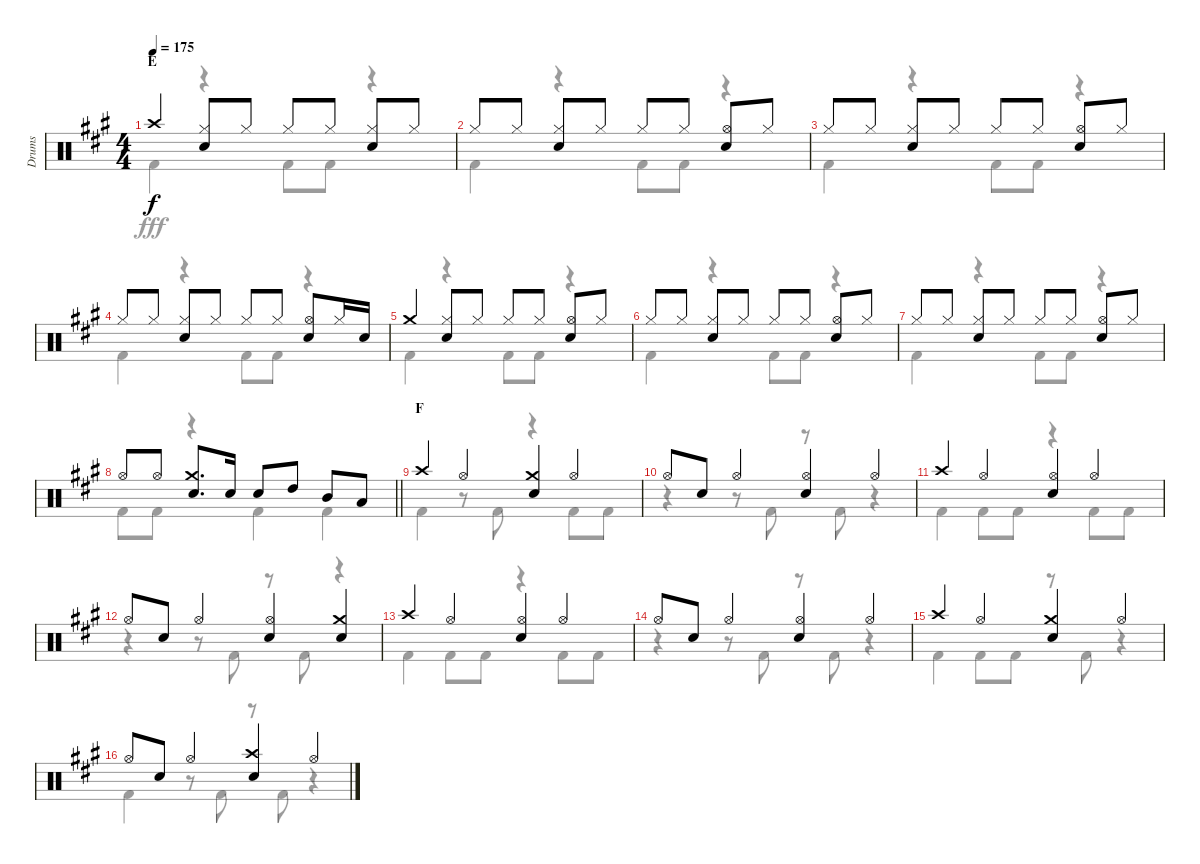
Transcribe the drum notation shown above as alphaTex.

\track ("Drums" "Drums") {instrument percussion}
\staff {score}
\articulation defaults
\voice
\ts (4 4)
\section ("" "E")
\tempo 175
\clef neutral
\ks a "Crash high (hit)".4{dy f}
("Hi-Hat (closed)" "Snare (hit) 2").8 "Hi-Hat (closed)".8 "Hi-Hat (closed)".8 "Hi-Hat (closed)".8 ("Hi-Hat (closed)" "Snare (hit) 2").8 "Hi-Hat (closed)".8 |
"Hi-Hat (closed)".8 "Hi-Hat (closed)".8 ("Hi-Hat (closed)" "Snare (hit) 2").8 "Hi-Hat (closed)".8 "Hi-Hat (closed)".8 "Hi-Hat (closed)".8 ("Hi-Hat (open)" "Snare (hit) 2").8 "Hi-Hat (closed)".8 |
"Hi-Hat (closed)".8 "Hi-Hat (closed)".8 ("Hi-Hat (closed)" "Snare (hit) 2").8 "Hi-Hat (closed)".8 "Hi-Hat (closed)".8 "Hi-Hat (closed)".8 ("Hi-Hat (open)" "Snare (hit) 2").8 "Hi-Hat (closed)".8 |
"Hi-Hat (closed)".8 "Hi-Hat (closed)".8 ("Hi-Hat (closed)" "Snare (hit) 2").8 "Hi-Hat (closed)".8 "Hi-Hat (closed)".8 "Hi-Hat (closed)".8 ("Hi-Hat (open)" "Snare (hit) 2").8 "Hi-Hat (closed)".16 "Snare (hit) 2".16 |
"Crash medium (hit)".4 ("Hi-Hat (closed)" "Snare (hit) 2").8 "Hi-Hat (closed)".8 "Hi-Hat (closed)".8 "Hi-Hat (closed)".8 ("Hi-Hat (open)" "Snare (hit) 2").8 "Hi-Hat (closed)".8 |
"Hi-Hat (closed)".8 "Hi-Hat (closed)".8 ("Hi-Hat (closed)" "Snare (hit) 2").8 "Hi-Hat (closed)".8 "Hi-Hat (closed)".8 "Hi-Hat (closed)".8 ("Hi-Hat (open)" "Snare (hit) 2").8 "Hi-Hat (closed)".8 |
"Hi-Hat (closed)".8 "Hi-Hat (closed)".8 ("Hi-Hat (closed)" "Snare (hit) 2").8 "Hi-Hat (closed)".8 "Hi-Hat (closed)".8 "Hi-Hat (closed)".8 ("Hi-Hat (open)" "Snare (hit) 2").8 "Hi-Hat (closed)".8 |
\barLineRight lightlight "Hi-Hat (open)".8 "Hi-Hat (open)".8
("Crash medium (hit)" "Snare (hit) 2").8{d} "Snare (hit) 2".16 "Snare (hit) 2".8 "High Tom (hit)".8 "Mid Tom (hit)".8 "Low Tom (hit)".8 |
\section ("" "F")
"Crash high (hit)".4 "Hi-Hat (open)".4 ("Crash medium (hit)" "Snare (hit) 2").4 "Hi-Hat (open)".4 |
"Hi-Hat (open)".8 "Snare (hit) 2".8 "Hi-Hat (open)".4 ("Hi-Hat (open)" "Snare (hit) 2").4 "Hi-Hat (open)".4 |
"Crash high (hit)".4 "Hi-Hat (open)".4 ("Hi-Hat (open)" "Snare (hit) 2").4 "Hi-Hat (open)".4 |
"Hi-Hat (open)".8 "Snare (hit) 2".8 "Hi-Hat (open)".4 ("Hi-Hat (open)" "Snare (hit) 2").4 ("Crash medium (hit)" "Snare (hit) 2").4 |
"Crash high (hit)".4 "Hi-Hat (open)".4 ("Hi-Hat (open)" "Snare (hit) 2").4 "Hi-Hat (open)".4 |
"Hi-Hat (open)".8 "Snare (hit) 2".8 "Hi-Hat (open)".4 ("Hi-Hat (open)" "Snare (hit) 2").4 "Hi-Hat (open)".4 |
"Crash high (hit)".4 "Hi-Hat (open)".4 ("Crash medium (hit)" "Snare (hit) 2").4 "Hi-Hat (open)".4 |
"Hi-Hat (open)".8 "Snare (hit) 2".8 "Hi-Hat (open)".4 ("Crash high (hit)" "Snare (hit) 2").4 "Hi-Hat (open)".4
\voice
\clef neutral
\ottava regular
\simile none
\ks a "Kick (hit) 2".4{dy fff}
r.4 "Kick (hit) 2".8 "Kick (hit) 2".8 r.4 |
"Kick (hit) 2".4 r.4 "Kick (hit) 2".8 "Kick (hit) 2".8 r.4 |
"Kick (hit) 2".4 r.4 "Kick (hit) 2".8 "Kick (hit) 2".8 r.4 |
"Kick (hit) 2".4 r.4 "Kick (hit) 2".8 "Kick (hit) 2".8 r.4 |
"Kick (hit) 2".4 r.4 "Kick (hit) 2".8 "Kick (hit) 2".8 r.4 |
"Kick (hit) 2".4 r.4 "Kick (hit) 2".8 "Kick (hit) 2".8 r.4 |
"Kick (hit) 2".4 r.4 "Kick (hit) 2".8 "Kick (hit) 2".8 r.4 |
\barLineRight lightlight "Kick (hit) 2".8 "Kick (hit) 2".8
r.4 "Kick (hit) 2".4 "Kick (hit) 2".4 |
"Kick (hit) 2".4 r.8 "Kick (hit) 2".8 r.4 "Kick (hit) 2".8 "Kick (hit) 2".8 |
r.4 r.8 "Kick (hit) 2".8 r.8 "Kick (hit) 2".8 r.4 |
"Kick (hit) 2".4 "Kick (hit) 2".8 "Kick (hit) 2".8 r.4 "Kick (hit) 2".8 "Kick (hit) 2".8 |
r.4 r.8 "Kick (hit) 2".8 r.8 "Kick (hit) 2".8 r.4 |
"Kick (hit) 2".4 "Kick (hit) 2".8 "Kick (hit) 2".8 r.4 "Kick (hit) 2".8 "Kick (hit) 2".8 |
r.4 r.8 "Kick (hit) 2".8 r.8 "Kick (hit) 2".8 r.4 |
"Kick (hit) 2".4 "Kick (hit) 2".8 "Kick (hit) 2".8 r.8 "Kick (hit) 2".8 r.4 |
"Kick (hit) 2".4 r.8 "Kick (hit) 2".8 r.8 "Kick (hit) 2".8 r.4
